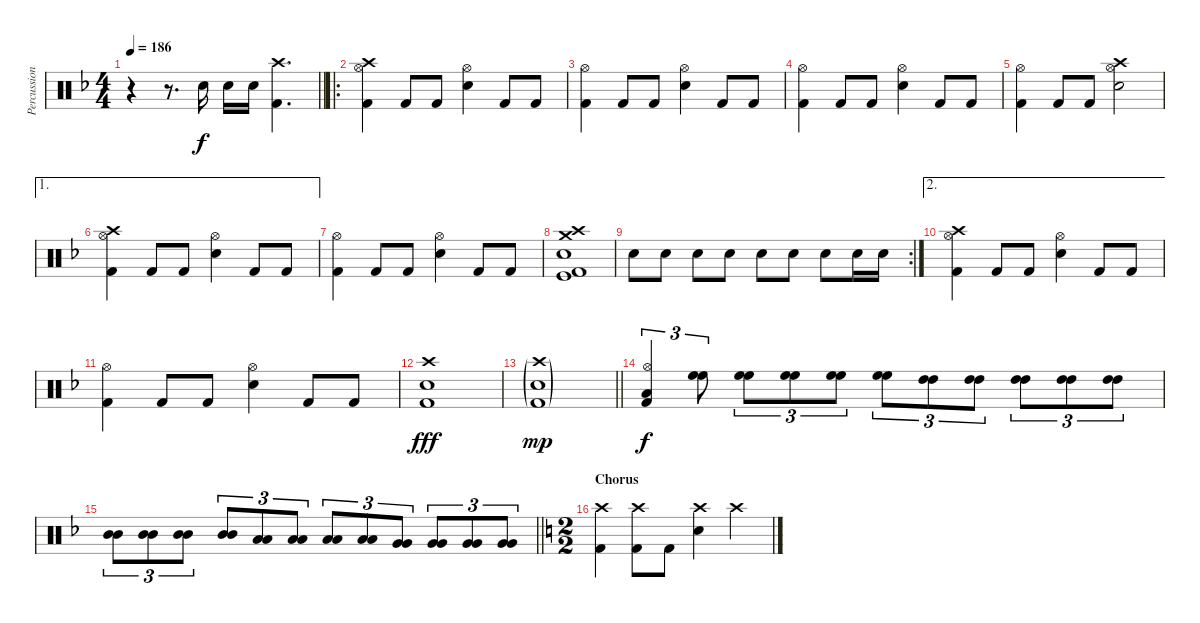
\track ("Percussion" "Percussion") {instrument percussion}
\staff {score}
\articulation defaults
\ts (4 4)
\tempo 186
\clef neutral
\barLineRight lightlight
\ks f
r.4{dy f} r.8{d} "Snare (hit) 2".16 "Snare (hit) 2".16 "Snare (hit) 2".16 ("Crash high (hit)" "Kick (hit) 2").4{d} |
\ro
("Crash high (hit)" "Hi-Hat (open)" "Kick (hit) 2").4 "Kick (hit) 2".8 "Kick (hit) 2".8 ("Hi-Hat (open)" "Snare (hit) 2").4 "Kick (hit) 2".8 "Kick (hit) 2".8 |
("Hi-Hat (open)" "Kick (hit) 2").4 "Kick (hit) 2".8 "Kick (hit) 2".8 ("Hi-Hat (open)" "Snare (hit) 2").4 "Kick (hit) 2".8 "Kick (hit) 2".8 |
("Hi-Hat (open)" "Kick (hit) 2").4 "Kick (hit) 2".8 "Kick (hit) 2".8 ("Hi-Hat (open)" "Snare (hit) 2").4 "Kick (hit) 2".8 "Kick (hit) 2".8 |
("Hi-Hat (open)" "Kick (hit) 2").4 "Kick (hit) 2".8 "Kick (hit) 2".8 ("Crash high (hit)" "Hi-Hat (open)" "Snare (hit) 2").2 |
\ae 1
("Crash high (hit)" "Hi-Hat (open)" "Kick (hit) 2").4 "Kick (hit) 2".8 "Kick (hit) 2".8 ("Hi-Hat (open)" "Snare (hit) 2").4 "Kick (hit) 2".8 "Kick (hit) 2".8 |
("Hi-Hat (open)" "Kick (hit) 2").4 "Kick (hit) 2".8 "Kick (hit) 2".8 ("Hi-Hat (open)" "Snare (hit) 2").4 "Kick (hit) 2".8 "Kick (hit) 2".8 |
("Snare (hit) 2" "Crash high (hit)" "Crash medium (hit)" "Kick (hit)" "Kick (hit) 2").1 |
\rc 2 "Snare (hit) 2".8 "Snare (hit) 2".8 "Snare (hit) 2".8 "Snare (hit) 2".8 "Snare (hit) 2".8 "Snare (hit) 2".8 "Snare (hit) 2".8 "Snare (hit) 2".16 "Snare (hit) 2".16
|
\ae 2
("Crash high (hit)" "Hi-Hat (open)" "Kick (hit) 2").4 "Kick (hit) 2".8 "Kick (hit) 2".8 ("Hi-Hat (open)" "Snare (hit) 2").4 "Kick (hit) 2".8 "Kick (hit) 2".8 |
("Hi-Hat (open)" "Kick (hit) 2").4 "Kick (hit) 2".8 "Kick (hit) 2".8 ("Hi-Hat (open)" "Snare (hit) 2").4 "Kick (hit) 2".8 "Kick (hit) 2".8 |
("Crash high (hit)" "Snare (hit) 2" "Kick (hit) 2").1{dy fff} |
\barLineRight lightlight
("Crash high (hit)"{g} "Snare (hit) 2"{g} "Kick (hit) 2"{g}).1{dy mp} |
("Kick (hit) 2" "Low Floor Tom (hit)" "Hi-Hat (open)").4{tu (3 2) dy f} ("High Floor Tom (hit)" "High Floor Tom (hit)").8{tu (3 2)} ("High Floor Tom (hit)" "High Floor Tom (hit)").8{tu (3 2)} ("High Floor Tom (hit)" "High Floor Tom (hit)").8{tu (3 2)} ("High Floor Tom (hit)" "High Floor Tom (hit)").8{tu (3 2)} ("High Floor Tom (hit)" "High Floor Tom (hit)").8{tu (3 2)} ("High Tom (hit)" "High Tom (hit)").8{tu (3 2)} ("High Tom (hit)" "High Tom (hit)").8{tu (3 2)} ("High Tom (hit)" "High Tom (hit)").8{tu (3 2)} ("High Tom (hit)" "High Tom (hit)").8{tu (3 2)} ("High Tom (hit)" "High Tom (hit)").8{tu (3 2)} |
\barLineRight lightlight
("Mid Tom (hit)" "Mid Tom (hit)").8{tu (3 2)} ("Mid Tom (hit)" "Mid Tom (hit)").8{tu (3 2)} ("Mid Tom (hit)" "Mid Tom (hit)").8{tu (3 2)} ("Mid Tom (hit)" "Mid Tom (hit)").8{tu (3 2)} ("Low Tom (hit)" "Low Tom (hit)").8{tu (3 2)} ("Low Tom (hit)" "Low Tom (hit)").8{tu (3 2)} ("Low Tom (hit)" "Low Tom (hit)").8{tu (3 2)} ("Low Tom (hit)" "Low Tom (hit)").8{tu (3 2)} ("Very Low Tom (hit)" "Very Low Tom (hit)").8{tu (3 2)} ("Very Low Tom (hit)" "Very Low Tom (hit)").8{tu (3 2)} ("Very Low Tom (hit)" "Very Low Tom (hit)").8{tu (3 2)} ("Very Low Tom (hit)" "Very Low Tom (hit)").8{tu (3 2)} |
\ts (2 2)
\section ("" "Chorus")
\ks c
("Crash high (hit)" "Kick (hit) 2").4 ("Crash high (hit)" "Kick (hit) 2").8 "Kick (hit) 2".8 ("Crash high (hit)" "Snare (hit) 2").4 "Crash high (hit)".4
